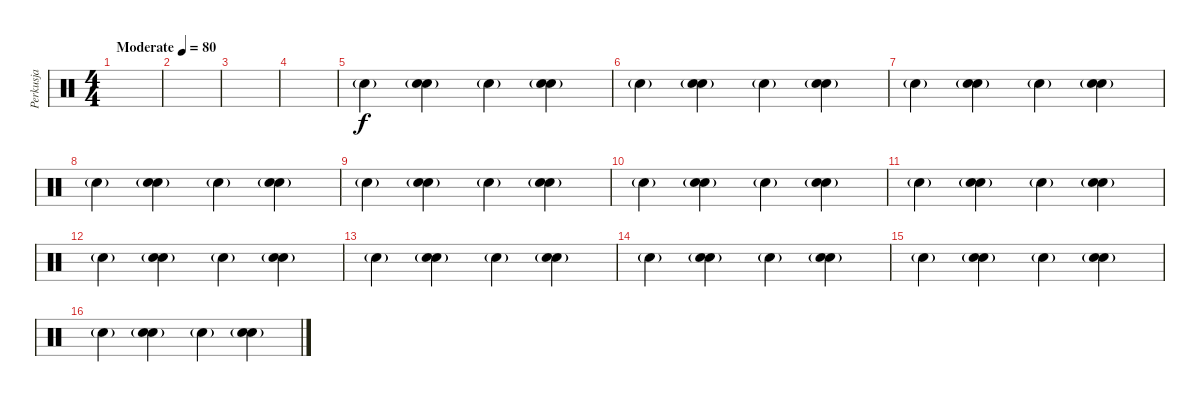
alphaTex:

\track ("Perkusja" "Perkusja") {instrument percussion}
\staff {score}
\articulation defaults
\ts (4 4)
\tempo (80 "Moderate")
\clef neutral
\ks c
|
|
|
|
"Electric Snare (hit)"{g}.4 ("Electric Snare (hit)"{g} "Snare (hit) 2").4 "Electric Snare (hit)"{g}.4 ("Electric Snare (hit)"{g} "Snare (hit) 2").4 |
"Electric Snare (hit)"{g}.4 ("Electric Snare (hit)"{g} "Snare (hit) 2").4 "Electric Snare (hit)"{g}.4 ("Electric Snare (hit)"{g} "Snare (hit) 2").4 |
"Electric Snare (hit)"{g}.4 ("Electric Snare (hit)"{g} "Snare (hit) 2").4 "Electric Snare (hit)"{g}.4 ("Electric Snare (hit)"{g} "Snare (hit) 2").4 |
"Electric Snare (hit)"{g}.4 ("Electric Snare (hit)"{g} "Snare (hit) 2").4 "Electric Snare (hit)"{g}.4 ("Electric Snare (hit)"{g} "Snare (hit) 2").4 |
"Electric Snare (hit)"{g}.4 ("Electric Snare (hit)"{g} "Snare (hit) 2").4 "Electric Snare (hit)"{g}.4 ("Electric Snare (hit)"{g} "Snare (hit) 2").4 |
"Electric Snare (hit)"{g}.4 ("Electric Snare (hit)"{g} "Snare (hit) 2").4 "Electric Snare (hit)"{g}.4 ("Electric Snare (hit)"{g} "Snare (hit) 2").4 |
"Electric Snare (hit)"{g}.4 ("Electric Snare (hit)"{g} "Snare (hit) 2").4 "Electric Snare (hit)"{g}.4 ("Electric Snare (hit)"{g} "Snare (hit) 2").4 |
"Electric Snare (hit)"{g}.4 ("Electric Snare (hit)"{g} "Snare (hit) 2").4 "Electric Snare (hit)"{g}.4 ("Electric Snare (hit)"{g} "Snare (hit) 2").4 |
"Electric Snare (hit)"{g}.4 ("Electric Snare (hit)"{g} "Snare (hit) 2").4 "Electric Snare (hit)"{g}.4 ("Electric Snare (hit)"{g} "Snare (hit) 2").4 |
"Electric Snare (hit)"{g}.4 ("Electric Snare (hit)"{g} "Snare (hit) 2").4 "Electric Snare (hit)"{g}.4 ("Electric Snare (hit)"{g} "Snare (hit) 2").4 |
"Electric Snare (hit)"{g}.4 ("Electric Snare (hit)"{g} "Snare (hit) 2").4 "Electric Snare (hit)"{g}.4 ("Electric Snare (hit)"{g} "Snare (hit) 2").4 |
"Electric Snare (hit)"{g}.4 ("Electric Snare (hit)"{g} "Snare (hit) 2").4 "Electric Snare (hit)"{g}.4 ("Electric Snare (hit)"{g} "Snare (hit) 2").4
